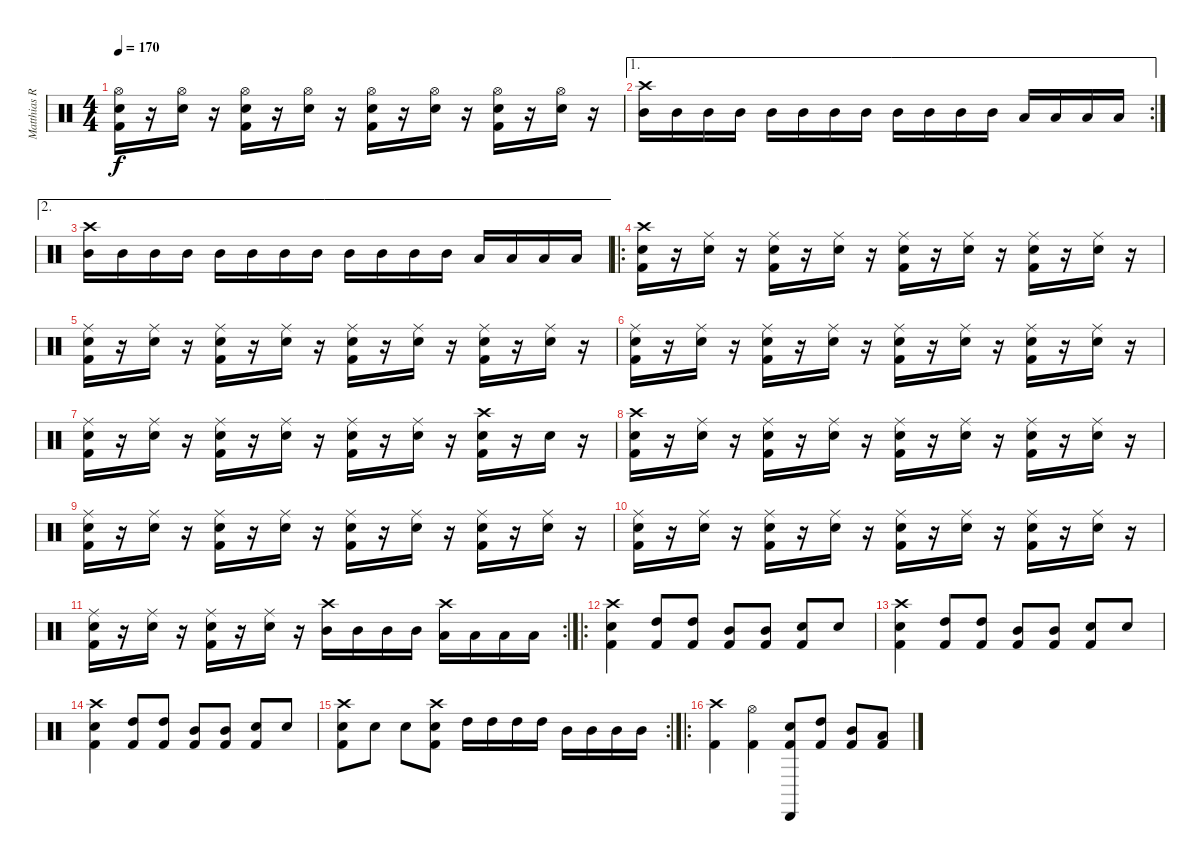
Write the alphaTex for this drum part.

\track ("Matthias Rodig" "Matthias R") {instrument percussion}
\staff {score}
\articulation defaults
\ts (4 4)
\tempo 170
\clef neutral
\ks c
("Kick (hit) 2" "Electric Snare (hit)" "Hi-Hat (open)").16{dy f} r.16 ("Electric Snare (hit)" "Hi-Hat (open)").16 r.16 ("Kick (hit) 2" "Electric Snare (hit)" "Hi-Hat (open)").16 r.16 ("Electric Snare (hit)" "Hi-Hat (open)").16 r.16 ("Kick (hit) 2" "Electric Snare (hit)" "Hi-Hat (open)").16 r.16 ("Electric Snare (hit)" "Hi-Hat (open)").16 r.16 ("Kick (hit) 2" "Electric Snare (hit)" "Hi-Hat (open)").16 r.16 ("Electric Snare (hit)" "Hi-Hat (open)").16 r.16 |
\ae 1
\rc 2
("Mid Tom (hit)" "Crash high (hit)").16 "Mid Tom (hit)".16 "Mid Tom (hit)".16 "Mid Tom (hit)".16 "Mid Tom (hit)".16 "Mid Tom (hit)".16 "Mid Tom (hit)".16 "Mid Tom (hit)".16 "Mid Tom (hit)".16 "Mid Tom (hit)".16 "Mid Tom (hit)".16 "Mid Tom (hit)".16 "Low Tom (hit)".16 "Low Tom (hit)".16 "Low Tom (hit)".16 "Low Tom (hit)".16 |
\ae 2
("Mid Tom (hit)" "Crash high (hit)").16 "Mid Tom (hit)".16 "Mid Tom (hit)".16 "Mid Tom (hit)".16 "Mid Tom (hit)".16 "Mid Tom (hit)".16 "Mid Tom (hit)".16 "Mid Tom (hit)".16 "Mid Tom (hit)".16 "Mid Tom (hit)".16 "Mid Tom (hit)".16 "Mid Tom (hit)".16 "Low Tom (hit)".16 "Low Tom (hit)".16 "Low Tom (hit)".16 "Low Tom (hit)".16 |
\ro
("Kick (hit) 2" "Electric Snare (hit)" "Crash high (hit)").16 r.16 ("Electric Snare (hit)" "Ride (middle)").16 r.16 ("Kick (hit) 2" "Electric Snare (hit)" "Ride (middle)").16 r.16 ("Electric Snare (hit)" "Ride (middle)").16 r.16 ("Kick (hit) 2" "Electric Snare (hit)" "Ride (middle)").16 r.16 ("Electric Snare (hit)" "Ride (middle)").16 r.16 ("Kick (hit) 2" "Electric Snare (hit)" "Ride (middle)").16 r.16 ("Electric Snare (hit)" "Ride (middle)").16 r.16 |
("Kick (hit) 2" "Electric Snare (hit)" "Ride (middle)").16 r.16 ("Electric Snare (hit)" "Ride (middle)").16 r.16 ("Kick (hit) 2" "Electric Snare (hit)" "Ride (middle)").16 r.16 ("Electric Snare (hit)" "Ride (middle)").16 r.16 ("Kick (hit) 2" "Electric Snare (hit)" "Ride (middle)").16 r.16 ("Electric Snare (hit)" "Ride (middle)").16 r.16 ("Kick (hit) 2" "Electric Snare (hit)" "Ride (middle)").16 r.16 ("Electric Snare (hit)" "Ride (middle)").16 r.16 |
("Kick (hit) 2" "Electric Snare (hit)" "Ride (middle)").16 r.16 ("Electric Snare (hit)" "Ride (middle)").16 r.16 ("Kick (hit) 2" "Electric Snare (hit)" "Ride (middle)").16 r.16 ("Electric Snare (hit)" "Ride (middle)").16 r.16 ("Kick (hit) 2" "Electric Snare (hit)" "Ride (middle)").16 r.16 ("Electric Snare (hit)" "Ride (middle)").16 r.16 ("Kick (hit) 2" "Electric Snare (hit)" "Ride (middle)").16 r.16 ("Electric Snare (hit)" "Ride (middle)").16 r.16 |
("Kick (hit) 2" "Electric Snare (hit)" "Ride (middle)").16 r.16 ("Electric Snare (hit)" "Ride (middle)").16 r.16 ("Kick (hit) 2" "Electric Snare (hit)" "Ride (middle)").16 r.16 ("Electric Snare (hit)" "Ride (middle)").16 r.16 ("Kick (hit) 2" "Electric Snare (hit)" "Ride (middle)").16 r.16 ("Electric Snare (hit)" "Ride (middle)").16 r.16 ("Kick (hit) 2" "Electric Snare (hit)" "Crash high (hit)").16 r.16 "Electric Snare (hit)".16 r.16 |
("Kick (hit) 2" "Electric Snare (hit)" "Crash high (hit)").16 r.16 ("Electric Snare (hit)" "Ride (middle)").16 r.16 ("Kick (hit) 2" "Electric Snare (hit)" "Ride (middle)").16 r.16 ("Electric Snare (hit)" "Ride (middle)").16 r.16 ("Kick (hit) 2" "Electric Snare (hit)" "Ride (middle)").16 r.16 ("Electric Snare (hit)" "Ride (middle)").16 r.16 ("Kick (hit) 2" "Electric Snare (hit)" "Ride (middle)").16 r.16 ("Electric Snare (hit)" "Ride (middle)").16 r.16 |
("Kick (hit) 2" "Electric Snare (hit)" "Ride (middle)").16 r.16 ("Electric Snare (hit)" "Ride (middle)").16 r.16 ("Kick (hit) 2" "Electric Snare (hit)" "Ride (middle)").16 r.16 ("Electric Snare (hit)" "Ride (middle)").16 r.16 ("Kick (hit) 2" "Electric Snare (hit)" "Ride (middle)").16 r.16 ("Electric Snare (hit)" "Ride (middle)").16 r.16 ("Kick (hit) 2" "Electric Snare (hit)" "Ride (middle)").16 r.16 ("Electric Snare (hit)" "Ride (middle)").16 r.16 |
("Kick (hit) 2" "Electric Snare (hit)" "Ride (middle)").16 r.16 ("Electric Snare (hit)" "Ride (middle)").16 r.16 ("Kick (hit) 2" "Electric Snare (hit)" "Ride (middle)").16 r.16 ("Electric Snare (hit)" "Ride (middle)").16 r.16 ("Kick (hit) 2" "Electric Snare (hit)" "Ride (middle)").16 r.16 ("Electric Snare (hit)" "Ride (middle)").16 r.16 ("Kick (hit) 2" "Electric Snare (hit)" "Ride (middle)").16 r.16 ("Electric Snare (hit)" "Ride (middle)").16 r.16 |
\rc 2
("Kick (hit) 2" "Electric Snare (hit)" "Ride (middle)").16 r.16 ("Electric Snare (hit)" "Ride (middle)").16 r.16 ("Kick (hit) 2" "Electric Snare (hit)" "Ride (middle)").16 r.16 ("Electric Snare (hit)" "Ride (middle)").16 r.16 ("Mid Tom (hit)" "Crash high (hit)").16 "Mid Tom (hit)".16 "Mid Tom (hit)".16 "Mid Tom (hit)".16 ("Low Tom (hit)" "Crash high (hit)").16 "Low Tom (hit)".16 "Low Tom (hit)".16 "Low Tom (hit)".16 |
\ro
("Kick (hit) 2" "Electric Snare (hit)" "Crash high (hit)").4 ("Kick (hit) 2" "High Tom (hit)").8 ("Kick (hit) 2" "High Tom (hit)").8 ("Kick (hit) 2" "Mid Tom (hit)").8 ("Kick (hit) 2" "Mid Tom (hit)").8 ("Kick (hit) 2" "Electric Snare (hit)").8 "Electric Snare (hit)".8 |
("Kick (hit) 2" "Electric Snare (hit)" "Crash high (hit)").4 ("Kick (hit) 2" "High Tom (hit)").8 ("Kick (hit) 2" "High Tom (hit)").8 ("Kick (hit) 2" "Mid Tom (hit)").8 ("Kick (hit) 2" "Mid Tom (hit)").8 ("Kick (hit) 2" "Electric Snare (hit)").8 "Electric Snare (hit)".8 |
("Kick (hit) 2" "Electric Snare (hit)" "Crash high (hit)").4 ("Kick (hit) 2" "High Tom (hit)").8 ("Kick (hit) 2" "High Tom (hit)").8 ("Kick (hit) 2" "Mid Tom (hit)").8 ("Kick (hit) 2" "Mid Tom (hit)").8 ("Kick (hit) 2" "Electric Snare (hit)").8 "Electric Snare (hit)".8 |
\rc 2
("Kick (hit) 2" "Electric Snare (hit)" "Crash high (hit)").8 "Electric Snare (hit)".8 "Electric Snare (hit)".8 ("Kick (hit) 2" "Electric Snare (hit)" "Crash high (hit)").8 "High Tom (hit)".16 "High Tom (hit)".16 "High Tom (hit)".16 "High Tom (hit)".16 "Mid Tom (hit)".16 "Mid Tom (hit)".16 "Mid Tom (hit)".16 "Mid Tom (hit)".16 |
\ro
("Kick (hit) 2" "Crash high (hit)").4 ("Kick (hit) 2" "Hi-Hat (open)").4 ("Kick (hit) 2" "Electric Snare (hit)" "Cabasa (hit)").8 ("Kick (hit) 2" "High Tom (hit)").8 ("Kick (hit) 2" "Mid Tom (hit)").8 ("Kick (hit) 2" "Low Tom (hit)").8
